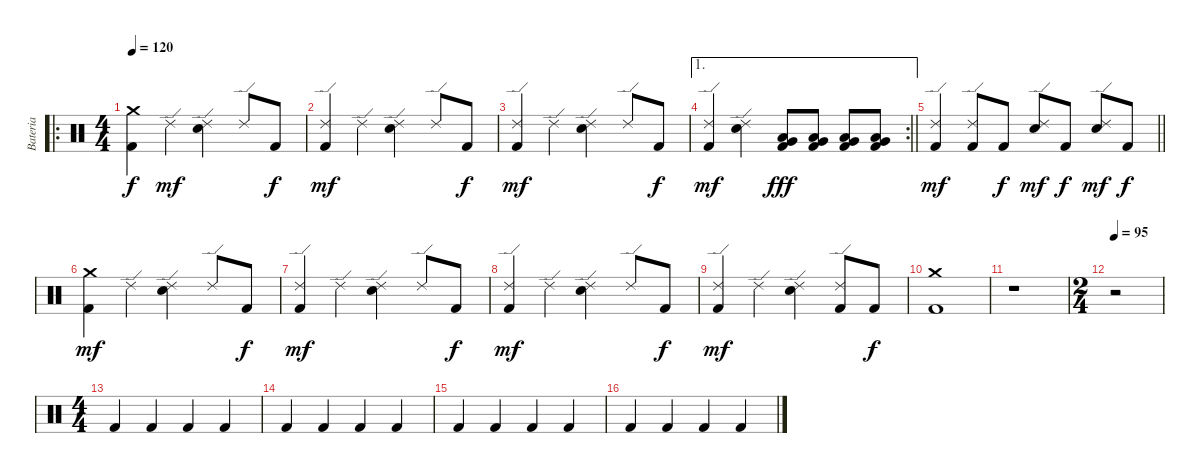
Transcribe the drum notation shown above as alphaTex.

\track ("Bateria" "Bateria") {instrument percussion}
\staff {score}
\articulation defaults
\ro
\ts (4 4)
\tempo 120
\clef neutral
\ks c
("Crash medium (hit)" "Kick (hit) 2").4{dy f} "Ride (edge) 2".4{dy mf} ("Ride (edge) 2" "Snare (hit) 2").4 "Ride (edge) 2".8 "Kick (hit) 2".8{dy f} |
("Ride (edge) 2" "Kick (hit) 2").4{dy mf} "Ride (edge) 2".4 ("Ride (edge) 2" "Snare (hit) 2").4 "Ride (edge) 2".8 "Kick (hit) 2".8{dy f} |
("Ride (edge) 2" "Kick (hit) 2").4{dy mf} "Ride (edge) 2".4 ("Ride (edge) 2" "Snare (hit) 2").4 "Ride (edge) 2".8 "Kick (hit) 2".8{dy f} |
\ae 1
\rc 2
\barLineRight lightlight
("Ride (edge) 2" "Kick (hit) 2").4{dy mf} ("Ride (edge) 2" "Snare (hit) 2").4 ("Low Tom (hit)" "Very Low Tom (hit)" "Kick (hit) 2").8{dy fff} ("Low Tom (hit)" "Very Low Tom (hit)" "Kick (hit) 2").8 ("Very Low Tom (hit)" "Low Floor Tom (hit)" "Kick (hit) 2").8 ("Very Low Tom (hit)" "Low Floor Tom (hit)" "Kick (hit) 2").8 |
\barLineRight lightlight
("Ride (edge) 2" "Kick (hit) 2").4{dy mf} ("Ride (edge) 2" "Kick (hit) 2").8 "Kick (hit) 2".8{dy f} ("Ride (edge) 2" "Snare (hit) 2").8{dy mf} "Kick (hit) 2".8{dy f} ("Ride (edge) 2" "Snare (hit) 2").8{dy mf} "Kick (hit) 2".8{dy f} |
("Crash medium (hit)" "Kick (hit) 2").4{dy mf} "Ride (edge) 2".4 ("Ride (edge) 2" "Snare (hit) 2").4 "Ride (edge) 2".8 "Kick (hit) 2".8{dy f} |
("Ride (edge) 2" "Kick (hit) 2").4{dy mf} "Ride (edge) 2".4 ("Ride (edge) 2" "Snare (hit) 2").4 "Ride (edge) 2".8 "Kick (hit) 2".8{dy f} |
("Ride (edge) 2" "Kick (hit) 2").4{dy mf} "Ride (edge) 2".4 ("Ride (edge) 2" "Snare (hit) 2").4 "Ride (edge) 2".8 "Kick (hit) 2".8{dy f} |
("Ride (edge) 2" "Kick (hit) 2").4{dy mf} "Ride (edge) 2".4 ("Ride (edge) 2" "Snare (hit) 2").4 ("Ride (edge) 2" "Kick (hit) 2").8 "Kick (hit) 2".8{dy f} |
("Crash medium (hit)" "Kick (hit) 2").1 |
r.1 |
\ts (2 4)
\tempo 95
r.2 |
\ts (4 4)
"Kick (hit) 2".4 "Kick (hit) 2".4 "Kick (hit) 2".4 "Kick (hit) 2".4 |
"Kick (hit) 2".4 "Kick (hit) 2".4 "Kick (hit) 2".4 "Kick (hit) 2".4 |
"Kick (hit) 2".4 "Kick (hit) 2".4 "Kick (hit) 2".4 "Kick (hit) 2".4 |
"Kick (hit) 2".4 "Kick (hit) 2".4 "Kick (hit) 2".4 "Kick (hit) 2".4
